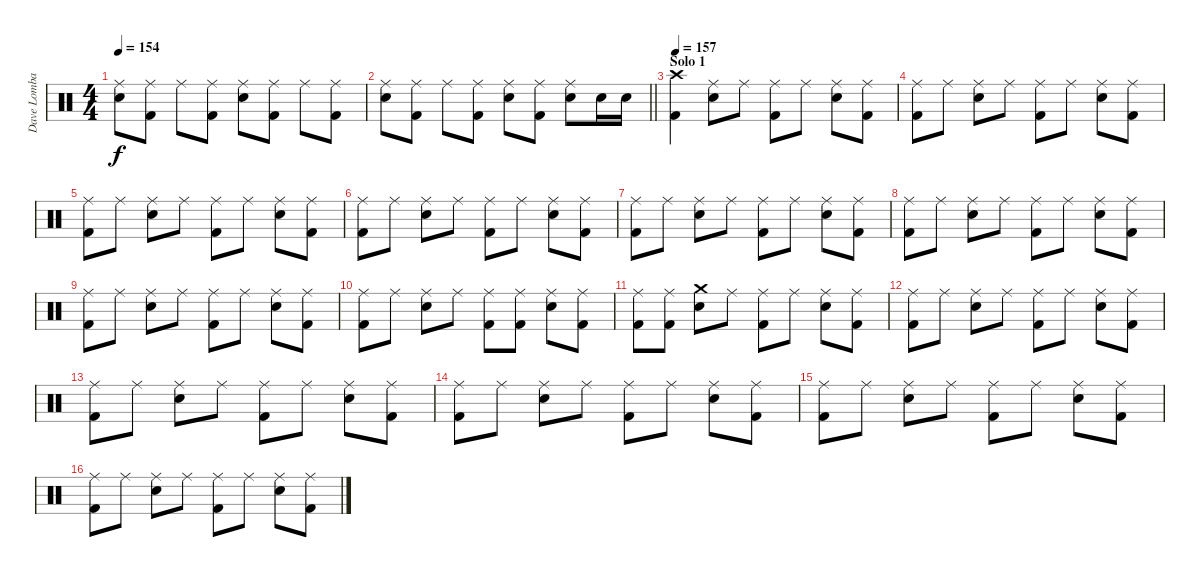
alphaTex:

\track ("Dave Lombardo" "Dave Lomba") {instrument percussion}
\staff {score}
\articulation defaults
\ts (4 4)
\tempo 154
\clef neutral
\ks c
("Ride (middle)" "Snare (hit) 2").8{dy f} ("Ride (middle)" "Kick (hit) 2").8 "Ride (middle)".8 ("Ride (middle)" "Kick (hit) 2").8 ("Ride (middle)" "Snare (hit) 2").8 ("Ride (middle)" "Kick (hit) 2").8 "Ride (middle)".8 ("Ride (middle)" "Kick (hit) 2").8 |
\barLineRight lightlight
("Ride (middle)" "Snare (hit) 2").8 ("Ride (middle)" "Kick (hit) 2").8 "Ride (middle)".8 ("Ride (middle)" "Kick (hit) 2").8 ("Ride (middle)" "Snare (hit) 2").8 ("Ride (middle)" "Kick (hit) 2").8 ("Ride (middle)" "Snare (hit) 2").8 "Snare (hit) 2".16 "Snare (hit) 2".16 |
\section ("" "Solo 1")
\tempo 157
("Crash high (hit)" "Kick (hit) 2").4 ("Ride (middle)" "Snare (hit) 2").8 "Ride (middle)".8 ("Ride (middle)" "Kick (hit) 2").8 "Ride (middle)".8 ("Ride (middle)" "Snare (hit) 2").8 ("Ride (middle)" "Kick (hit) 2").8 |
("Ride (middle)" "Kick (hit) 2").8 "Ride (middle)".8 ("Ride (middle)" "Snare (hit) 2").8 "Ride (middle)".8 ("Ride (middle)" "Kick (hit) 2").8 "Ride (middle)".8 ("Ride (middle)" "Snare (hit) 2").8 ("Ride (middle)" "Kick (hit) 2").8 |
("Ride (middle)" "Kick (hit) 2").8 "Ride (middle)".8 ("Ride (middle)" "Snare (hit) 2").8 "Ride (middle)".8 ("Ride (middle)" "Kick (hit) 2").8 "Ride (middle)".8 ("Ride (middle)" "Snare (hit) 2").8 ("Ride (middle)" "Kick (hit) 2").8 |
("Ride (middle)" "Kick (hit) 2").8 "Ride (middle)".8 ("Ride (middle)" "Snare (hit) 2").8 "Ride (middle)".8 ("Ride (middle)" "Kick (hit) 2").8 "Ride (middle)".8 ("Ride (middle)" "Snare (hit) 2").8 ("Ride (middle)" "Kick (hit) 2").8 |
("Ride (middle)" "Kick (hit) 2").8 "Ride (middle)".8 ("Ride (middle)" "Snare (hit) 2").8 "Ride (middle)".8 ("Ride (middle)" "Kick (hit) 2").8 "Ride (middle)".8 ("Ride (middle)" "Snare (hit) 2").8 ("Ride (middle)" "Kick (hit) 2").8 |
("Ride (middle)" "Kick (hit) 2").8 "Ride (middle)".8 ("Ride (middle)" "Snare (hit) 2").8 "Ride (middle)".8 ("Ride (middle)" "Kick (hit) 2").8 "Ride (middle)".8 ("Ride (middle)" "Snare (hit) 2").8 ("Ride (middle)" "Kick (hit) 2").8 |
("Ride (middle)" "Kick (hit) 2").8 "Ride (middle)".8 ("Ride (middle)" "Snare (hit) 2").8 "Ride (middle)".8 ("Ride (middle)" "Kick (hit) 2").8 "Ride (middle)".8 ("Ride (middle)" "Snare (hit) 2").8 ("Ride (middle)" "Kick (hit) 2").8 |
("Ride (middle)" "Kick (hit) 2").8 "Ride (middle)".8 ("Ride (middle)" "Snare (hit) 2").8 "Ride (middle)".8 ("Ride (middle)" "Kick (hit) 2").8 ("Ride (middle)" "Kick (hit) 2").8 ("Ride (middle)" "Snare (hit) 2").8 ("Ride (middle)" "Kick (hit) 2").8 |
("Ride (middle)" "Kick (hit) 2").8 ("Ride (middle)" "Kick (hit) 2").8 ("Crash medium (hit)" "Snare (hit) 2").8 "Ride (middle)".8 ("Ride (middle)" "Kick (hit) 2").8 "Ride (middle)".8 ("Ride (middle)" "Snare (hit) 2").8 ("Ride (middle)" "Kick (hit) 2").8 |
("Ride (middle)" "Kick (hit) 2").8 "Ride (middle)".8 ("Ride (middle)" "Snare (hit) 2").8 "Ride (middle)".8 ("Ride (middle)" "Kick (hit) 2").8 "Ride (middle)".8 ("Ride (middle)" "Snare (hit) 2").8 ("Ride (middle)" "Kick (hit) 2").8 |
("Ride (middle)" "Kick (hit) 2").8 "Ride (middle)".8 ("Ride (middle)" "Snare (hit) 2").8 "Ride (middle)".8 ("Ride (middle)" "Kick (hit) 2").8 "Ride (middle)".8 ("Ride (middle)" "Snare (hit) 2").8 ("Ride (middle)" "Kick (hit) 2").8 |
("Ride (middle)" "Kick (hit) 2").8 "Ride (middle)".8 ("Ride (middle)" "Snare (hit) 2").8 "Ride (middle)".8 ("Ride (middle)" "Kick (hit) 2").8 "Ride (middle)".8 ("Ride (middle)" "Snare (hit) 2").8 ("Ride (middle)" "Kick (hit) 2").8 |
("Ride (middle)" "Kick (hit) 2").8 "Ride (middle)".8 ("Ride (middle)" "Snare (hit) 2").8 "Ride (middle)".8 ("Ride (middle)" "Kick (hit) 2").8 "Ride (middle)".8 ("Ride (middle)" "Snare (hit) 2").8 ("Ride (middle)" "Kick (hit) 2").8 |
("Ride (middle)" "Kick (hit) 2").8 "Ride (middle)".8 ("Ride (middle)" "Snare (hit) 2").8 "Ride (middle)".8 ("Ride (middle)" "Kick (hit) 2").8 "Ride (middle)".8 ("Ride (middle)" "Snare (hit) 2").8 ("Ride (middle)" "Kick (hit) 2").8
